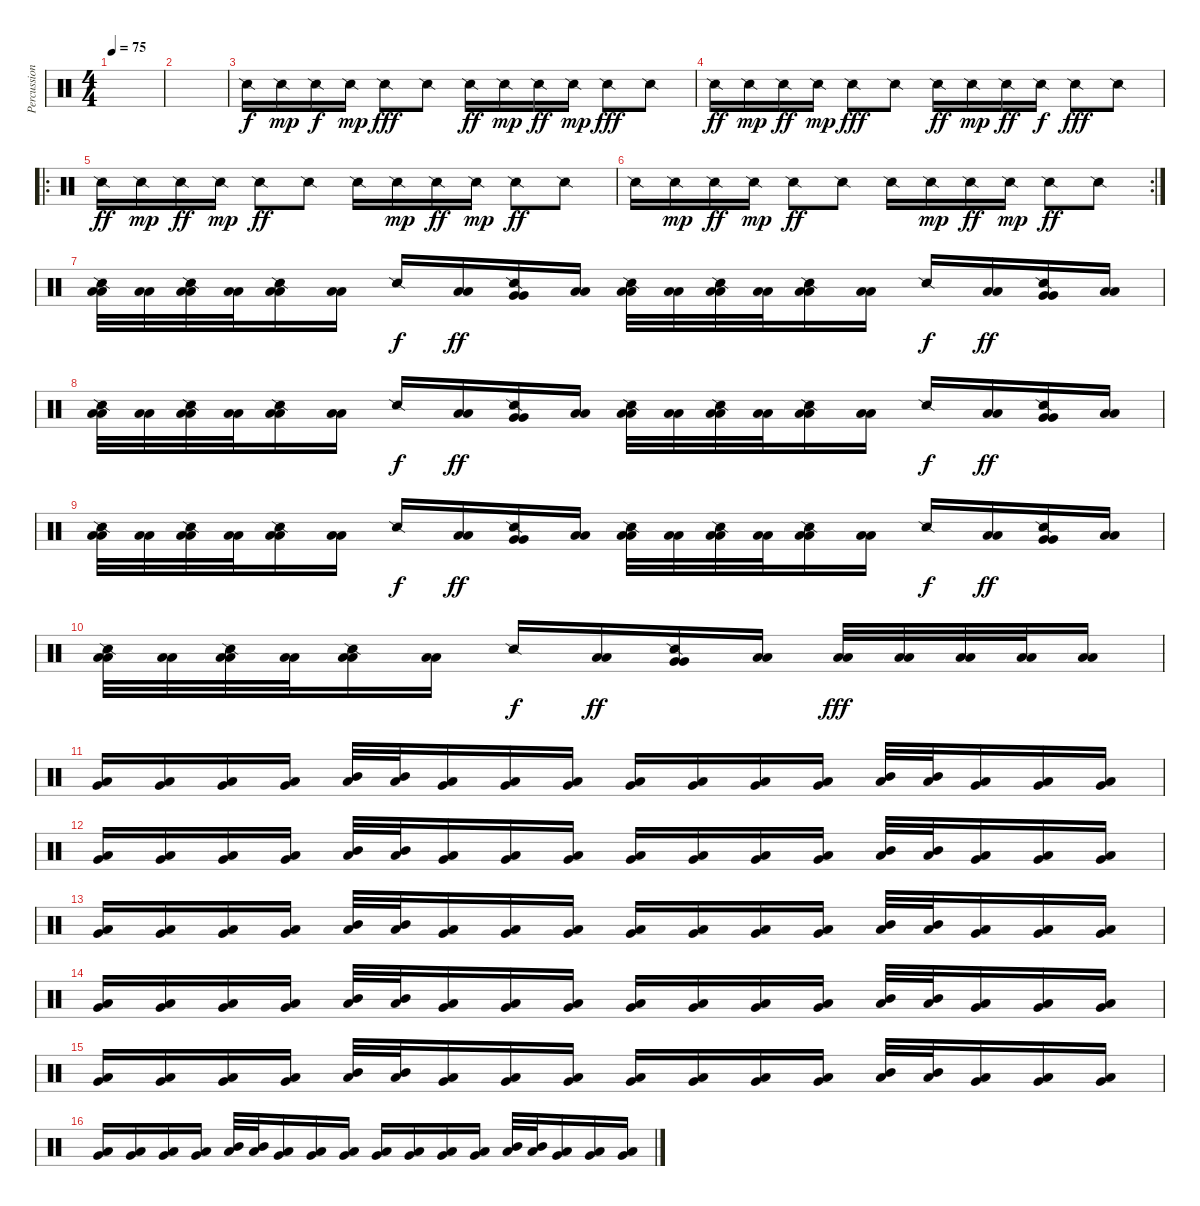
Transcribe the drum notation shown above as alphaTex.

\track ("Percussion" "Percussion") {instrument percussion}
\staff {score}
\articulation defaults
\ts (4 4)
\tempo 75
\clef neutral
\ks c
|
|
"Snare (side stick) 2".16 "Snare (side stick) 2".16{dy mp} "Snare (side stick) 2".16{dy f} "Snare (side stick) 2".16{dy mp} "Snare (side stick) 2".8{dy fff} "Snare (side stick) 2".8 "Snare (side stick) 2".16{dy ff} "Snare (side stick) 2".16{dy mp} "Snare (side stick) 2".16{dy ff} "Snare (side stick) 2".16{dy mp} "Snare (side stick) 2".8{dy fff} "Snare (side stick) 2".8 |
"Snare (side stick) 2".16{dy ff} "Snare (side stick) 2".16{dy mp} "Snare (side stick) 2".16{dy ff} "Snare (side stick) 2".16{dy mp} "Snare (side stick) 2".8{dy fff} "Snare (side stick) 2".8 "Snare (side stick) 2".16{dy ff} "Snare (side stick) 2".16{dy mp} "Snare (side stick) 2".16{dy ff} "Snare (side stick) 2".16{dy f} "Snare (side stick) 2".8{dy fff} "Snare (side stick) 2".8 |
\ro "Snare (side stick) 2".16{dy ff} "Snare (side stick) 2".16{dy mp} "Snare (side stick) 2".16{dy ff} "Snare (side stick) 2".16{dy mp} "Snare (side stick) 2".8{dy ff} "Snare (side stick) 2".8 "Snare (side stick) 2".16 "Snare (side stick) 2".16{dy mp} "Snare (side stick) 2".16{dy ff} "Snare (side stick) 2".16{dy mp} "Snare (side stick) 2".8{dy ff} "Snare (side stick) 2".8
|
\rc 2 "Snare (side stick) 2".16 "Snare (side stick) 2".16{dy mp} "Snare (side stick) 2".16{dy ff} "Snare (side stick) 2".16{dy mp} "Snare (side stick) 2".8{dy ff} "Snare (side stick) 2".8 "Snare (side stick) 2".16 "Snare (side stick) 2".16{dy mp} "Snare (side stick) 2".16{dy ff} "Snare (side stick) 2".16{dy mp} "Snare (side stick) 2".8{dy ff} "Snare (side stick) 2".8
|
("Snare (side stick) 2" "Low Floor Tom (hit)" "Low Floor Tom (hit)").32{bd 60} ("Low Floor Tom (hit)" "Low Floor Tom (hit)").32{bd 60} ("Snare (side stick) 2" "Low Floor Tom (hit)" "Low Floor Tom (hit)").32{bd 60} ("Low Floor Tom (hit)" "Low Floor Tom (hit)").32{bd 60} ("Snare (side stick) 2" "Low Floor Tom (hit)" "Low Floor Tom (hit)").16{bd 60} ("Low Floor Tom (hit)" "Low Floor Tom (hit)").16{bd 60} "Snare (side stick) 2".16{dy f} ("Low Tom (hit)" "Low Tom (hit)").16{bd 60 dy ff} ("Snare (side stick) 2" "Very Low Tom (hit)" "Very Low Tom (hit)").16{bd 60} ("Low Floor Tom (hit)" "Low Floor Tom (hit)").16{bd 60} ("Snare (side stick) 2" "Low Floor Tom (hit)" "Low Floor Tom (hit)").32{bd 60} ("Low Floor Tom (hit)" "Low Floor Tom (hit)").32{bd 60} ("Snare (side stick) 2" "Low Floor Tom (hit)" "Low Floor Tom (hit)").32{bd 60} ("Low Floor Tom (hit)" "Low Floor Tom (hit)").32{bd 60} ("Snare (side stick) 2" "Low Floor Tom (hit)" "Low Floor Tom (hit)").16{bd 60} ("Low Floor Tom (hit)" "Low Floor Tom (hit)").16{bd 60} "Snare (side stick) 2".16{dy f} ("Low Tom (hit)" "Low Tom (hit)").16{bd 60 dy ff} ("Snare (side stick) 2" "Very Low Tom (hit)" "Very Low Tom (hit)").16{bd 60} ("Low Floor Tom (hit)" "Low Floor Tom (hit)").16{bd 60} |
("Snare (side stick) 2" "Low Floor Tom (hit)" "Low Floor Tom (hit)").32{bd 60} ("Low Floor Tom (hit)" "Low Floor Tom (hit)").32{bd 60} ("Snare (side stick) 2" "Low Floor Tom (hit)" "Low Floor Tom (hit)").32{bd 60} ("Low Floor Tom (hit)" "Low Floor Tom (hit)").32{bd 60} ("Snare (side stick) 2" "Low Floor Tom (hit)" "Low Floor Tom (hit)").16{bd 60} ("Low Floor Tom (hit)" "Low Floor Tom (hit)").16{bd 60} "Snare (side stick) 2".16{dy f} ("Low Tom (hit)" "Low Tom (hit)").16{bd 60 dy ff} ("Snare (side stick) 2" "Very Low Tom (hit)" "Very Low Tom (hit)").16{bd 60} ("Low Floor Tom (hit)" "Low Floor Tom (hit)").16{bd 60} ("Snare (side stick) 2" "Low Floor Tom (hit)" "Low Floor Tom (hit)").32{bd 60} ("Low Floor Tom (hit)" "Low Floor Tom (hit)").32{bd 60} ("Snare (side stick) 2" "Low Floor Tom (hit)" "Low Floor Tom (hit)").32{bd 60} ("Low Floor Tom (hit)" "Low Floor Tom (hit)").32{bd 60} ("Snare (side stick) 2" "Low Floor Tom (hit)" "Low Floor Tom (hit)").16{bd 60} ("Low Floor Tom (hit)" "Low Floor Tom (hit)").16{bd 60} "Snare (side stick) 2".16{dy f} ("Low Tom (hit)" "Low Tom (hit)").16{bd 60 dy ff} ("Snare (side stick) 2" "Very Low Tom (hit)" "Very Low Tom (hit)").16{bd 60} ("Low Floor Tom (hit)" "Low Floor Tom (hit)").16{bd 60} |
("Snare (side stick) 2" "Low Floor Tom (hit)" "Low Floor Tom (hit)").32{bd 60} ("Low Floor Tom (hit)" "Low Floor Tom (hit)").32{bd 60} ("Snare (side stick) 2" "Low Floor Tom (hit)" "Low Floor Tom (hit)").32{bd 60} ("Low Floor Tom (hit)" "Low Floor Tom (hit)").32{bd 60} ("Snare (side stick) 2" "Low Floor Tom (hit)" "Low Floor Tom (hit)").16{bd 60} ("Low Floor Tom (hit)" "Low Floor Tom (hit)").16{bd 60} "Snare (side stick) 2".16{dy f} ("Low Tom (hit)" "Low Tom (hit)").16{bd 60 dy ff} ("Snare (side stick) 2" "Very Low Tom (hit)" "Very Low Tom (hit)").16{bd 60} ("Low Floor Tom (hit)" "Low Floor Tom (hit)").16{bd 60} ("Snare (side stick) 2" "Low Floor Tom (hit)" "Low Floor Tom (hit)").32{bd 60} ("Low Floor Tom (hit)" "Low Floor Tom (hit)").32{bd 60} ("Snare (side stick) 2" "Low Floor Tom (hit)" "Low Floor Tom (hit)").32{bd 60} ("Low Floor Tom (hit)" "Low Floor Tom (hit)").32{bd 60} ("Snare (side stick) 2" "Low Floor Tom (hit)" "Low Floor Tom (hit)").16{bd 60} ("Low Floor Tom (hit)" "Low Floor Tom (hit)").16{bd 60} "Snare (side stick) 2".16{dy f} ("Low Tom (hit)" "Low Tom (hit)").16{bd 60 dy ff} ("Snare (side stick) 2" "Very Low Tom (hit)" "Very Low Tom (hit)").16{bd 60} ("Low Floor Tom (hit)" "Low Floor Tom (hit)").16{bd 60} |
("Snare (side stick) 2" "Low Floor Tom (hit)" "Low Floor Tom (hit)").32{bd 60} ("Low Floor Tom (hit)" "Low Floor Tom (hit)").32{bd 60} ("Snare (side stick) 2" "Low Floor Tom (hit)" "Low Floor Tom (hit)").32{bd 60} ("Low Floor Tom (hit)" "Low Floor Tom (hit)").32{bd 60} ("Snare (side stick) 2" "Low Floor Tom (hit)" "Low Floor Tom (hit)").16{bd 60} ("Low Floor Tom (hit)" "Low Floor Tom (hit)").16{bd 60} "Snare (side stick) 2".16{dy f} ("Low Tom (hit)" "Low Tom (hit)").16{bd 60 dy ff} ("Snare (side stick) 2" "Very Low Tom (hit)" "Very Low Tom (hit)").16{bd 60} ("Low Floor Tom (hit)" "Low Floor Tom (hit)").16{bd 60} ("Low Floor Tom (hit)" "Low Floor Tom (hit)").32{bd 60 dy fff} ("Low Floor Tom (hit)" "Low Floor Tom (hit)").32{bd 60} ("Low Floor Tom (hit)" "Low Floor Tom (hit)").32{bd 60} ("Low Floor Tom (hit)" "Low Floor Tom (hit)").32{bd 60} ("Low Floor Tom (hit)" "Low Floor Tom (hit)").16{bd 60} |
("Very Low Tom (hit)" "Low Floor Tom (hit)").16{bd 60} ("Very Low Tom (hit)" "Low Floor Tom (hit)").16{bd 60} ("Very Low Tom (hit)" "Low Floor Tom (hit)").16{bd 60} ("Very Low Tom (hit)" "Low Floor Tom (hit)").16{bd 60} ("Mid Tom (hit)" "Low Tom (hit)").32{bd 60} ("Mid Tom (hit)" "Low Tom (hit)").32{bd 60} ("Low Tom (hit)" "Very Low Tom (hit)").16{bd 60} ("Low Tom (hit)" "Very Low Tom (hit)").16{bd 60} ("Very Low Tom (hit)" "Low Floor Tom (hit)").16{bd 60} ("Very Low Tom (hit)" "Low Floor Tom (hit)").16{bd 60} ("Very Low Tom (hit)" "Low Floor Tom (hit)").16{bd 60} ("Very Low Tom (hit)" "Low Floor Tom (hit)").16{bd 60} ("Very Low Tom (hit)" "Low Floor Tom (hit)").16{bd 60} ("Mid Tom (hit)" "Low Tom (hit)").32{bd 60} ("Mid Tom (hit)" "Low Tom (hit)").32{bd 60} ("Low Tom (hit)" "Very Low Tom (hit)").16{bd 60} ("Low Tom (hit)" "Very Low Tom (hit)").16{bd 60} ("Very Low Tom (hit)" "Low Floor Tom (hit)").16{bd 60} |
("Very Low Tom (hit)" "Low Floor Tom (hit)").16{bd 60} ("Very Low Tom (hit)" "Low Floor Tom (hit)").16{bd 60} ("Very Low Tom (hit)" "Low Floor Tom (hit)").16{bd 60} ("Very Low Tom (hit)" "Low Floor Tom (hit)").16{bd 60} ("Mid Tom (hit)" "Low Tom (hit)").32{bd 60} ("Mid Tom (hit)" "Low Tom (hit)").32{bd 60} ("Low Tom (hit)" "Very Low Tom (hit)").16{bd 60} ("Low Tom (hit)" "Very Low Tom (hit)").16{bd 60} ("Very Low Tom (hit)" "Low Floor Tom (hit)").16{bd 60} ("Very Low Tom (hit)" "Low Floor Tom (hit)").16{bd 60} ("Very Low Tom (hit)" "Low Floor Tom (hit)").16{bd 60} ("Very Low Tom (hit)" "Low Floor Tom (hit)").16{bd 60} ("Very Low Tom (hit)" "Low Floor Tom (hit)").16{bd 60} ("Mid Tom (hit)" "Low Tom (hit)").32{bd 60} ("Mid Tom (hit)" "Low Tom (hit)").32{bd 60} ("Low Tom (hit)" "Very Low Tom (hit)").16{bd 60} ("Low Tom (hit)" "Very Low Tom (hit)").16{bd 60} ("Very Low Tom (hit)" "Low Floor Tom (hit)").16{bd 60} |
("Very Low Tom (hit)" "Low Floor Tom (hit)").16{bd 60} ("Very Low Tom (hit)" "Low Floor Tom (hit)").16{bd 60} ("Very Low Tom (hit)" "Low Floor Tom (hit)").16{bd 60} ("Very Low Tom (hit)" "Low Floor Tom (hit)").16{bd 60} ("Mid Tom (hit)" "Low Tom (hit)").32{bd 60} ("Mid Tom (hit)" "Low Tom (hit)").32{bd 60} ("Low Tom (hit)" "Very Low Tom (hit)").16{bd 60} ("Low Tom (hit)" "Very Low Tom (hit)").16{bd 60} ("Very Low Tom (hit)" "Low Floor Tom (hit)").16{bd 60} ("Very Low Tom (hit)" "Low Floor Tom (hit)").16{bd 60} ("Very Low Tom (hit)" "Low Floor Tom (hit)").16{bd 60} ("Very Low Tom (hit)" "Low Floor Tom (hit)").16{bd 60} ("Very Low Tom (hit)" "Low Floor Tom (hit)").16{bd 60} ("Mid Tom (hit)" "Low Tom (hit)").32{bd 60} ("Mid Tom (hit)" "Low Tom (hit)").32{bd 60} ("Low Tom (hit)" "Very Low Tom (hit)").16{bd 60} ("Low Tom (hit)" "Very Low Tom (hit)").16{bd 60} ("Very Low Tom (hit)" "Low Floor Tom (hit)").16{bd 60} |
("Very Low Tom (hit)" "Low Floor Tom (hit)").16{bd 60} ("Very Low Tom (hit)" "Low Floor Tom (hit)").16{bd 60} ("Very Low Tom (hit)" "Low Floor Tom (hit)").16{bd 60} ("Very Low Tom (hit)" "Low Floor Tom (hit)").16{bd 60} ("Mid Tom (hit)" "Low Tom (hit)").32{bd 60} ("Mid Tom (hit)" "Low Tom (hit)").32{bd 60} ("Low Tom (hit)" "Very Low Tom (hit)").16{bd 60} ("Low Tom (hit)" "Very Low Tom (hit)").16{bd 60} ("Very Low Tom (hit)" "Low Floor Tom (hit)").16{bd 60} ("Very Low Tom (hit)" "Low Floor Tom (hit)").16{bd 60} ("Very Low Tom (hit)" "Low Floor Tom (hit)").16{bd 60} ("Very Low Tom (hit)" "Low Floor Tom (hit)").16{bd 60} ("Very Low Tom (hit)" "Low Floor Tom (hit)").16{bd 60} ("Mid Tom (hit)" "Low Tom (hit)").32{bd 60} ("Mid Tom (hit)" "Low Tom (hit)").32{bd 60} ("Low Tom (hit)" "Very Low Tom (hit)").16{bd 60} ("Low Tom (hit)" "Very Low Tom (hit)").16{bd 60} ("Very Low Tom (hit)" "Low Floor Tom (hit)").16{bd 60} |
("Very Low Tom (hit)" "Low Floor Tom (hit)").16{bd 60} ("Very Low Tom (hit)" "Low Floor Tom (hit)").16{bd 60} ("Very Low Tom (hit)" "Low Floor Tom (hit)").16{bd 60} ("Very Low Tom (hit)" "Low Floor Tom (hit)").16{bd 60} ("Mid Tom (hit)" "Low Tom (hit)").32{bd 60} ("Mid Tom (hit)" "Low Tom (hit)").32{bd 60} ("Low Tom (hit)" "Very Low Tom (hit)").16{bd 60} ("Low Tom (hit)" "Very Low Tom (hit)").16{bd 60} ("Very Low Tom (hit)" "Low Floor Tom (hit)").16{bd 60} ("Very Low Tom (hit)" "Low Floor Tom (hit)").16{bd 60} ("Very Low Tom (hit)" "Low Floor Tom (hit)").16{bd 60} ("Very Low Tom (hit)" "Low Floor Tom (hit)").16{bd 60} ("Very Low Tom (hit)" "Low Floor Tom (hit)").16{bd 60} ("Mid Tom (hit)" "Low Tom (hit)").32{bd 60} ("Mid Tom (hit)" "Low Tom (hit)").32{bd 60} ("Low Tom (hit)" "Very Low Tom (hit)").16{bd 60} ("Low Tom (hit)" "Very Low Tom (hit)").16{bd 60} ("Very Low Tom (hit)" "Low Floor Tom (hit)").16{bd 60} |
("Very Low Tom (hit)" "Low Floor Tom (hit)").16{bd 60} ("Very Low Tom (hit)" "Low Floor Tom (hit)").16{bd 60} ("Very Low Tom (hit)" "Low Floor Tom (hit)").16{bd 60} ("Very Low Tom (hit)" "Low Floor Tom (hit)").16{bd 60} ("Mid Tom (hit)" "Low Tom (hit)").32{bd 60} ("Mid Tom (hit)" "Low Tom (hit)").32{bd 60} ("Low Tom (hit)" "Very Low Tom (hit)").16{bd 60} ("Low Tom (hit)" "Very Low Tom (hit)").16{bd 60} ("Very Low Tom (hit)" "Low Floor Tom (hit)").16{bd 60} ("Very Low Tom (hit)" "Low Floor Tom (hit)").16{bd 60} ("Very Low Tom (hit)" "Low Floor Tom (hit)").16{bd 60} ("Very Low Tom (hit)" "Low Floor Tom (hit)").16{bd 60} ("Very Low Tom (hit)" "Low Floor Tom (hit)").16{bd 60} ("Mid Tom (hit)" "Low Tom (hit)").32{bd 60} ("Mid Tom (hit)" "Low Tom (hit)").32{bd 60} ("Low Tom (hit)" "Very Low Tom (hit)").16{bd 60} ("Low Tom (hit)" "Very Low Tom (hit)").16{bd 60} ("Very Low Tom (hit)" "Low Floor Tom (hit)").16{bd 60}
